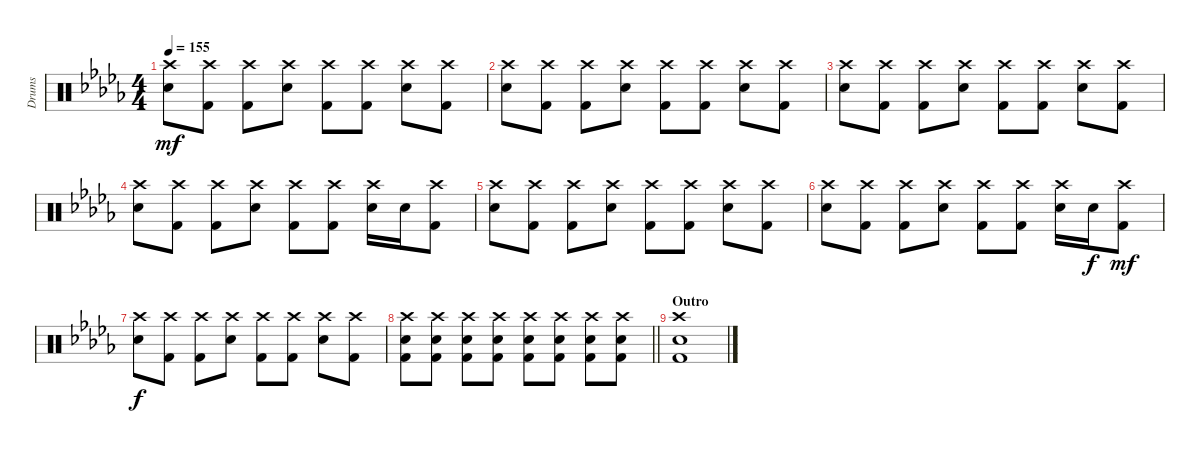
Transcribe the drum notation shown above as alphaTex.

\track ("Drums" "Drums") {instrument percussion}
\staff {score}
\articulation defaults
\ts (4 4)
\tempo 155
\clef neutral
\ks db
("Crash high (hit)" "Electric Snare (hit)").8{dy mf} ("Crash high (hit)" "Kick (hit) 2").8 ("Crash high (hit)" "Kick (hit) 2").8 ("Crash high (hit)" "Electric Snare (hit)").8 ("Crash high (hit)" "Kick (hit) 2").8 ("Crash high (hit)" "Kick (hit) 2").8 ("Crash high (hit)" "Electric Snare (hit)").8 ("Crash high (hit)" "Kick (hit) 2").8 |
("Crash high (hit)" "Electric Snare (hit)").8 ("Crash high (hit)" "Kick (hit) 2").8 ("Crash high (hit)" "Kick (hit) 2").8 ("Crash high (hit)" "Electric Snare (hit)").8 ("Crash high (hit)" "Kick (hit) 2").8 ("Crash high (hit)" "Kick (hit) 2").8 ("Crash high (hit)" "Electric Snare (hit)").8 ("Crash high (hit)" "Kick (hit) 2").8 |
("Crash high (hit)" "Electric Snare (hit)").8 ("Crash high (hit)" "Kick (hit) 2").8 ("Crash high (hit)" "Kick (hit) 2").8 ("Crash high (hit)" "Electric Snare (hit)").8 ("Crash high (hit)" "Kick (hit) 2").8 ("Crash high (hit)" "Kick (hit) 2").8 ("Crash high (hit)" "Electric Snare (hit)").8 ("Crash high (hit)" "Kick (hit) 2").8 |
("Crash high (hit)" "Electric Snare (hit)").8 ("Crash high (hit)" "Kick (hit) 2").8 ("Crash high (hit)" "Kick (hit) 2").8 ("Crash high (hit)" "Electric Snare (hit)").8 ("Crash high (hit)" "Kick (hit) 2").8 ("Crash high (hit)" "Kick (hit) 2").8 ("Crash high (hit)" "Electric Snare (hit)").16 "Electric Snare (hit)".16 ("Crash high (hit)" "Kick (hit) 2").8 |
("Crash high (hit)" "Electric Snare (hit)").8 ("Crash high (hit)" "Kick (hit) 2").8 ("Crash high (hit)" "Kick (hit) 2").8 ("Crash high (hit)" "Electric Snare (hit)").8 ("Crash high (hit)" "Kick (hit) 2").8 ("Crash high (hit)" "Kick (hit) 2").8 ("Crash high (hit)" "Electric Snare (hit)").8 ("Crash high (hit)" "Kick (hit) 2").8 |
("Crash high (hit)" "Electric Snare (hit)").8 ("Crash high (hit)" "Kick (hit) 2").8 ("Crash high (hit)" "Kick (hit) 2").8 ("Crash high (hit)" "Electric Snare (hit)").8 ("Crash high (hit)" "Kick (hit) 2").8 ("Crash high (hit)" "Kick (hit) 2").8 ("Crash high (hit)" "Electric Snare (hit)").16 "Electric Snare (hit)".16{dy f} ("Crash high (hit)" "Kick (hit) 2").8{dy mf} |
("Crash high (hit)" "Electric Snare (hit)").8{dy f} ("Crash high (hit)" "Kick (hit) 2").8 ("Crash high (hit)" "Kick (hit) 2").8 ("Crash high (hit)" "Electric Snare (hit)").8 ("Crash high (hit)" "Kick (hit) 2").8 ("Crash high (hit)" "Kick (hit) 2").8 ("Crash high (hit)" "Electric Snare (hit)").8 ("Crash high (hit)" "Kick (hit) 2").8 |
\barLineRight lightlight
("Crash high (hit)" "Electric Snare (hit)" "Kick (hit) 2").8 ("Crash high (hit)" "Electric Snare (hit)" "Kick (hit) 2").8 ("Crash high (hit)" "Electric Snare (hit)" "Kick (hit) 2").8 ("Crash high (hit)" "Electric Snare (hit)" "Kick (hit) 2").8 ("Crash high (hit)" "Electric Snare (hit)" "Kick (hit) 2").8 ("Crash high (hit)" "Electric Snare (hit)" "Kick (hit) 2").8 ("Crash high (hit)" "Electric Snare (hit)" "Kick (hit) 2").8 ("Crash high (hit)" "Electric Snare (hit)" "Kick (hit) 2").8 |
\section ("" "Outro")
("Crash high (hit)" "Electric Snare (hit)" "Kick (hit) 2").1
